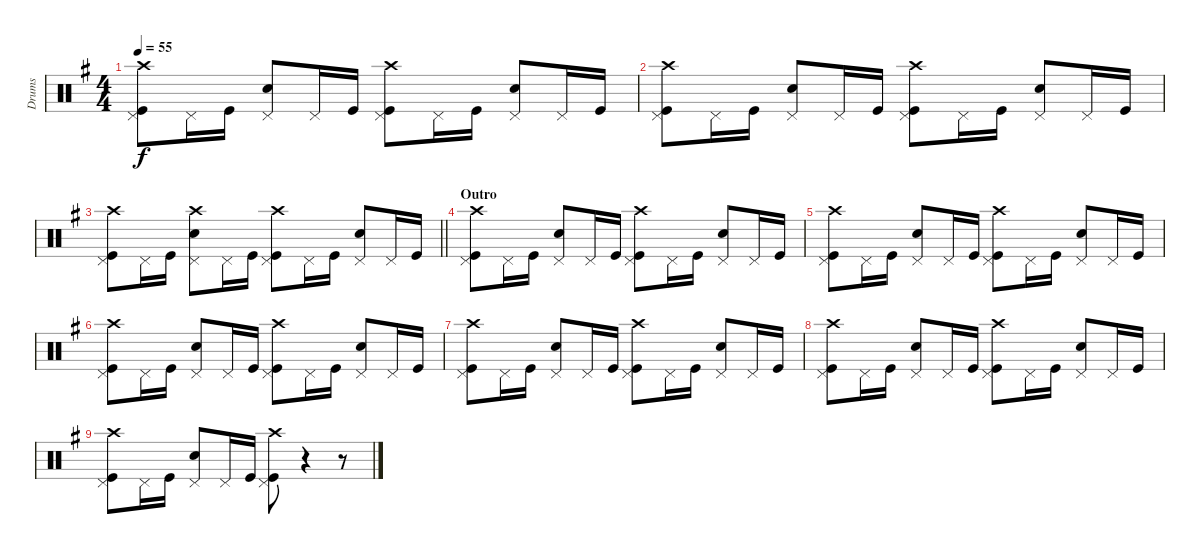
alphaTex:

\track ("Drums" "Drums") {instrument percussion}
\staff {score}
\articulation defaults
\ts (4 4)
\tempo 55
\clef neutral
\ks eminor
("Crash high (hit)" "Kick (hit)" "Pedal Hi-Hat (hit)").8{dy f} "Pedal Hi-Hat (hit)".16 "Kick (hit)".16 ("Snare (hit) 2" "Pedal Hi-Hat (hit)").8 "Pedal Hi-Hat (hit)".16 "Kick (hit)".16 ("Crash high (hit)" "Kick (hit)" "Pedal Hi-Hat (hit)").8 "Pedal Hi-Hat (hit)".16 "Kick (hit)".16 ("Snare (hit) 2" "Pedal Hi-Hat (hit)").8 "Pedal Hi-Hat (hit)".16 "Kick (hit)".16 |
("Crash high (hit)" "Kick (hit)" "Pedal Hi-Hat (hit)").8 "Pedal Hi-Hat (hit)".16 "Kick (hit)".16 ("Snare (hit) 2" "Pedal Hi-Hat (hit)").8 "Pedal Hi-Hat (hit)".16 "Kick (hit)".16 ("Crash high (hit)" "Kick (hit)" "Pedal Hi-Hat (hit)").8 "Pedal Hi-Hat (hit)".16 "Kick (hit)".16 ("Snare (hit) 2" "Pedal Hi-Hat (hit)").8 "Pedal Hi-Hat (hit)".16 "Kick (hit)".16 |
\barLineRight lightlight
("Crash high (hit)" "Kick (hit)" "Pedal Hi-Hat (hit)").8 "Pedal Hi-Hat (hit)".16 "Kick (hit)".16 ("Crash high (hit)" "Snare (hit) 2" "Pedal Hi-Hat (hit)").8 "Pedal Hi-Hat (hit)".16 "Kick (hit)".16 ("Crash high (hit)" "Kick (hit)" "Pedal Hi-Hat (hit)").8 "Pedal Hi-Hat (hit)".16 "Kick (hit)".16 ("Snare (hit) 2" "Pedal Hi-Hat (hit)").8 "Pedal Hi-Hat (hit)".16 "Kick (hit)".16 |
\section ("" "Outro")
("Crash high (hit)" "Kick (hit)" "Pedal Hi-Hat (hit)").8 "Pedal Hi-Hat (hit)".16 "Kick (hit)".16 ("Snare (hit) 2" "Pedal Hi-Hat (hit)").8 "Pedal Hi-Hat (hit)".16 "Kick (hit)".16 ("Crash high (hit)" "Kick (hit)" "Pedal Hi-Hat (hit)").8 "Pedal Hi-Hat (hit)".16 "Kick (hit)".16 ("Snare (hit) 2" "Pedal Hi-Hat (hit)").8 "Pedal Hi-Hat (hit)".16 "Kick (hit)".16 |
("Crash high (hit)" "Kick (hit)" "Pedal Hi-Hat (hit)").8 "Pedal Hi-Hat (hit)".16 "Kick (hit)".16 ("Snare (hit) 2" "Pedal Hi-Hat (hit)").8 "Pedal Hi-Hat (hit)".16 "Kick (hit)".16 ("Crash high (hit)" "Kick (hit)" "Pedal Hi-Hat (hit)").8 "Pedal Hi-Hat (hit)".16 "Kick (hit)".16 ("Snare (hit) 2" "Pedal Hi-Hat (hit)").8 "Pedal Hi-Hat (hit)".16 "Kick (hit)".16 |
("Crash high (hit)" "Kick (hit)" "Pedal Hi-Hat (hit)").8 "Pedal Hi-Hat (hit)".16 "Kick (hit)".16 ("Snare (hit) 2" "Pedal Hi-Hat (hit)").8 "Pedal Hi-Hat (hit)".16 "Kick (hit)".16 ("Crash high (hit)" "Kick (hit)" "Pedal Hi-Hat (hit)").8 "Pedal Hi-Hat (hit)".16 "Kick (hit)".16 ("Snare (hit) 2" "Pedal Hi-Hat (hit)").8 "Pedal Hi-Hat (hit)".16 "Kick (hit)".16 |
("Crash high (hit)" "Kick (hit)" "Pedal Hi-Hat (hit)").8 "Pedal Hi-Hat (hit)".16 "Kick (hit)".16 ("Snare (hit) 2" "Pedal Hi-Hat (hit)").8 "Pedal Hi-Hat (hit)".16 "Kick (hit)".16 ("Crash high (hit)" "Kick (hit)" "Pedal Hi-Hat (hit)").8 "Pedal Hi-Hat (hit)".16 "Kick (hit)".16 ("Snare (hit) 2" "Pedal Hi-Hat (hit)").8 "Pedal Hi-Hat (hit)".16 "Kick (hit)".16 |
("Crash high (hit)" "Kick (hit)" "Pedal Hi-Hat (hit)").8 "Pedal Hi-Hat (hit)".16 "Kick (hit)".16 ("Snare (hit) 2" "Pedal Hi-Hat (hit)").8 "Pedal Hi-Hat (hit)".16 "Kick (hit)".16 ("Crash high (hit)" "Kick (hit)" "Pedal Hi-Hat (hit)").8 "Pedal Hi-Hat (hit)".16 "Kick (hit)".16 ("Snare (hit) 2" "Pedal Hi-Hat (hit)").8 "Pedal Hi-Hat (hit)".16 "Kick (hit)".16 |
("Crash high (hit)" "Kick (hit)" "Pedal Hi-Hat (hit)").8 "Pedal Hi-Hat (hit)".16 "Kick (hit)".16 ("Snare (hit) 2" "Pedal Hi-Hat (hit)").8 "Pedal Hi-Hat (hit)".16 "Kick (hit)".16 ("Crash high (hit)" "Kick (hit)" "Pedal Hi-Hat (hit)").8 r.4 r.8
